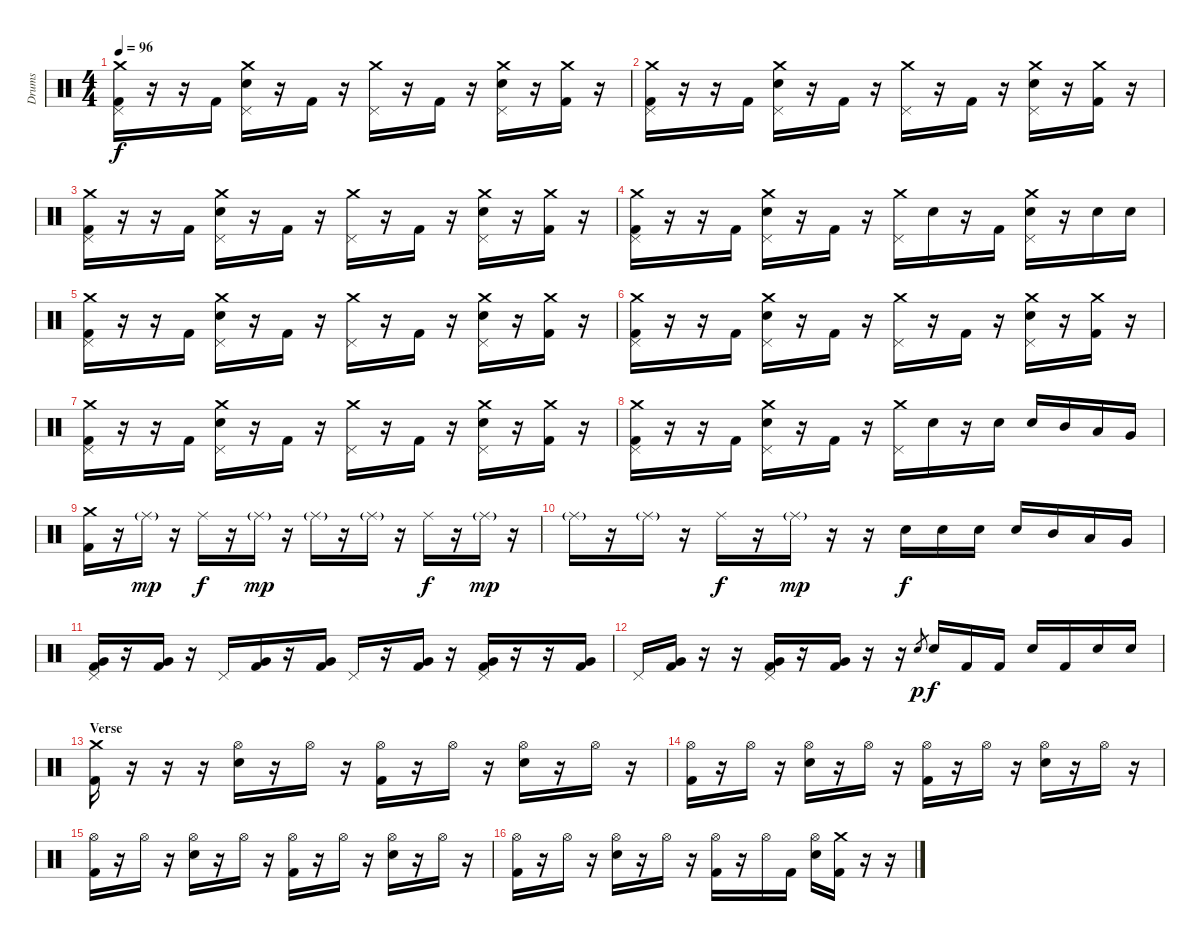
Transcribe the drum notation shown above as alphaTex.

\track ("Drums" "Drums") {instrument percussion}
\staff {score}
\articulation defaults
\ts (4 4)
\tempo 96
\clef neutral
\ks c
("Crash medium (hit)" "Pedal Hi-Hat (hit)" "Kick (hit) 2").16{dy f} r.16 r.16 "Kick (hit) 2".16 ("Crash medium (hit)" "Pedal Hi-Hat (hit)" "Electric Snare (hit)").16 r.16 "Kick (hit) 2".16 r.16 ("Crash medium (hit)" "Pedal Hi-Hat (hit)").16 r.16 "Kick (hit) 2".16 r.16 ("Crash medium (hit)" "Pedal Hi-Hat (hit)" "Electric Snare (hit)").16 r.16 ("Crash medium (hit)" "Kick (hit) 2").16 r.16 |
("Crash medium (hit)" "Pedal Hi-Hat (hit)" "Kick (hit) 2").16 r.16 r.16 "Kick (hit) 2".16 ("Crash medium (hit)" "Pedal Hi-Hat (hit)" "Electric Snare (hit)").16 r.16 "Kick (hit) 2".16 r.16 ("Crash medium (hit)" "Pedal Hi-Hat (hit)").16 r.16 "Kick (hit) 2".16 r.16 ("Crash medium (hit)" "Pedal Hi-Hat (hit)" "Electric Snare (hit)").16 r.16 ("Crash medium (hit)" "Kick (hit) 2").16 r.16 |
("Crash medium (hit)" "Pedal Hi-Hat (hit)" "Kick (hit) 2").16 r.16 r.16 "Kick (hit) 2".16 ("Crash medium (hit)" "Pedal Hi-Hat (hit)" "Electric Snare (hit)").16 r.16 "Kick (hit) 2".16 r.16 ("Crash medium (hit)" "Pedal Hi-Hat (hit)").16 r.16 "Kick (hit) 2".16 r.16 ("Crash medium (hit)" "Pedal Hi-Hat (hit)" "Electric Snare (hit)").16 r.16 ("Crash medium (hit)" "Kick (hit) 2").16 r.16 |
("Crash medium (hit)" "Pedal Hi-Hat (hit)" "Kick (hit) 2").16 r.16 r.16 "Kick (hit) 2".16 ("Crash medium (hit)" "Pedal Hi-Hat (hit)" "Electric Snare (hit)").16 r.16 "Kick (hit) 2".16 r.16 ("Crash medium (hit)" "Pedal Hi-Hat (hit)").16 "Electric Snare (hit)".16 r.16 "Kick (hit) 2".16 ("Crash medium (hit)" "Pedal Hi-Hat (hit)" "Electric Snare (hit)").16 r.16 "Electric Snare (hit)".16 "Electric Snare (hit)".16 |
("Crash medium (hit)" "Pedal Hi-Hat (hit)" "Kick (hit) 2").16 r.16 r.16 "Kick (hit) 2".16 ("Crash medium (hit)" "Pedal Hi-Hat (hit)" "Electric Snare (hit)").16 r.16 "Kick (hit) 2".16 r.16 ("Crash medium (hit)" "Pedal Hi-Hat (hit)").16 r.16 "Kick (hit) 2".16 r.16 ("Crash medium (hit)" "Pedal Hi-Hat (hit)" "Electric Snare (hit)").16 r.16 ("Crash medium (hit)" "Kick (hit) 2").16 r.16 |
("Crash medium (hit)" "Pedal Hi-Hat (hit)" "Kick (hit) 2").16 r.16 r.16 "Kick (hit) 2".16 ("Crash medium (hit)" "Pedal Hi-Hat (hit)" "Electric Snare (hit)").16 r.16 "Kick (hit) 2".16 r.16 ("Crash medium (hit)" "Pedal Hi-Hat (hit)").16 r.16 "Kick (hit) 2".16 r.16 ("Crash medium (hit)" "Pedal Hi-Hat (hit)" "Electric Snare (hit)").16 r.16 ("Crash medium (hit)" "Kick (hit) 2").16 r.16 |
("Crash medium (hit)" "Pedal Hi-Hat (hit)" "Kick (hit) 2").16 r.16 r.16 "Kick (hit) 2".16 ("Crash medium (hit)" "Pedal Hi-Hat (hit)" "Electric Snare (hit)").16 r.16 "Kick (hit) 2".16 r.16 ("Crash medium (hit)" "Pedal Hi-Hat (hit)").16 r.16 "Kick (hit) 2".16 r.16 ("Crash medium (hit)" "Pedal Hi-Hat (hit)" "Electric Snare (hit)").16 r.16 ("Crash medium (hit)" "Kick (hit) 2").16 r.16 |
("Crash medium (hit)" "Pedal Hi-Hat (hit)" "Kick (hit) 2").16 r.16 r.16 "Kick (hit) 2".16 ("Crash medium (hit)" "Pedal Hi-Hat (hit)" "Electric Snare (hit)").16 r.16 "Kick (hit) 2".16 r.16 ("Crash medium (hit)" "Pedal Hi-Hat (hit)").16 "Electric Snare (hit)".16 r.16 "Electric Snare (hit)".16 "Electric Snare (hit)".16 "Mid Tom (hit)".16 "Low Tom (hit)".16 "Very Low Tom (hit)".16 |
("Crash medium (hit)" "Kick (hit) 2").16 r.16 "Ride (middle)"{g}.16{dy mp} r.16 "Ride (middle)".16{dy f} r.16 "Ride (middle)"{g}.16{dy mp} r.16 "Ride (middle)"{g}.16 r.16 "Ride (middle)"{g}.16 r.16 "Ride (middle)".16{dy f} r.16 "Ride (middle)"{g}.16{dy mp} r.16 |
"Ride (middle)"{g}.16 r.16 "Ride (middle)"{g}.16 r.16 "Ride (middle)".16{dy f} r.16 "Ride (middle)"{g}.16{dy mp} r.16 r.16 "Electric Snare (hit)".16{dy f} "Electric Snare (hit)".16 "Electric Snare (hit)".16 "Electric Snare (hit)".16 "Mid Tom (hit)".16 "Low Tom (hit)".16 "Very Low Tom (hit)".16 |
("Pedal Hi-Hat (hit)" "Very Low Tom (hit)" "Kick (hit) 2").16 r.16 ("Very Low Tom (hit)" "Kick (hit) 2").16 r.16 "Pedal Hi-Hat (hit)".16 ("Very Low Tom (hit)" "Kick (hit) 2").16 r.16 ("Very Low Tom (hit)" "Kick (hit) 2").16 "Pedal Hi-Hat (hit)".16 r.16 ("Very Low Tom (hit)" "Kick (hit) 2").16 r.16 ("Pedal Hi-Hat (hit)" "Very Low Tom (hit)" "Kick (hit) 2").16 r.16 r.16 ("Very Low Tom (hit)" "Kick (hit) 2").16 |
"Pedal Hi-Hat (hit)".16 ("Very Low Tom (hit)" "Kick (hit) 2").16 r.16 r.16 ("Pedal Hi-Hat (hit)" "Very Low Tom (hit)" "Kick (hit) 2").16 r.16 ("Very Low Tom (hit)" "Kick (hit) 2").16 r.16 r.16 "Electric Snare (hit)".8{gr dy p} "Electric Snare (hit)".16{dy f} "Kick (hit) 2".16 "Kick (hit) 2".16 "Electric Snare (hit)".16 "Kick (hit) 2".16 "Electric Snare (hit)".16 "Electric Snare (hit)".16 |
\section ("" "Verse")
("Crash medium (hit)" "Kick (hit) 2").16 r.16 r.16 r.16 ("Hi-Hat (open)" "Electric Snare (hit)").16 r.16 "Hi-Hat (open)".16 r.16 ("Hi-Hat (open)" "Kick (hit) 2").16 r.16 "Hi-Hat (open)".16 r.16 ("Hi-Hat (open)" "Electric Snare (hit)").16 r.16 "Hi-Hat (open)".16 r.16 |
("Hi-Hat (open)" "Kick (hit) 2").16 r.16 "Hi-Hat (open)".16 r.16 ("Hi-Hat (open)" "Electric Snare (hit)").16 r.16 "Hi-Hat (open)".16 r.16 ("Hi-Hat (open)" "Kick (hit) 2").16 r.16 "Hi-Hat (open)".16 r.16 ("Hi-Hat (open)" "Electric Snare (hit)").16 r.16 "Hi-Hat (open)".16 r.16 |
("Hi-Hat (open)" "Kick (hit) 2").16 r.16 "Hi-Hat (open)".16 r.16 ("Hi-Hat (open)" "Electric Snare (hit)").16 r.16 "Hi-Hat (open)".16 r.16 ("Hi-Hat (open)" "Kick (hit) 2").16 r.16 "Hi-Hat (open)".16 r.16 ("Hi-Hat (open)" "Electric Snare (hit)").16 r.16 "Hi-Hat (open)".16 r.16 |
("Hi-Hat (open)" "Kick (hit) 2").16 r.16 "Hi-Hat (open)".16 r.16 ("Hi-Hat (open)" "Electric Snare (hit)").16 r.16 "Hi-Hat (open)".16 r.16 ("Hi-Hat (open)" "Kick (hit) 2").16 r.16 "Hi-Hat (open)".16 "Kick (hit) 2".16 ("Hi-Hat (open)" "Electric Snare (hit)").16 ("Crash medium (hit)" "Kick (hit) 2").16 r.16 r.16
